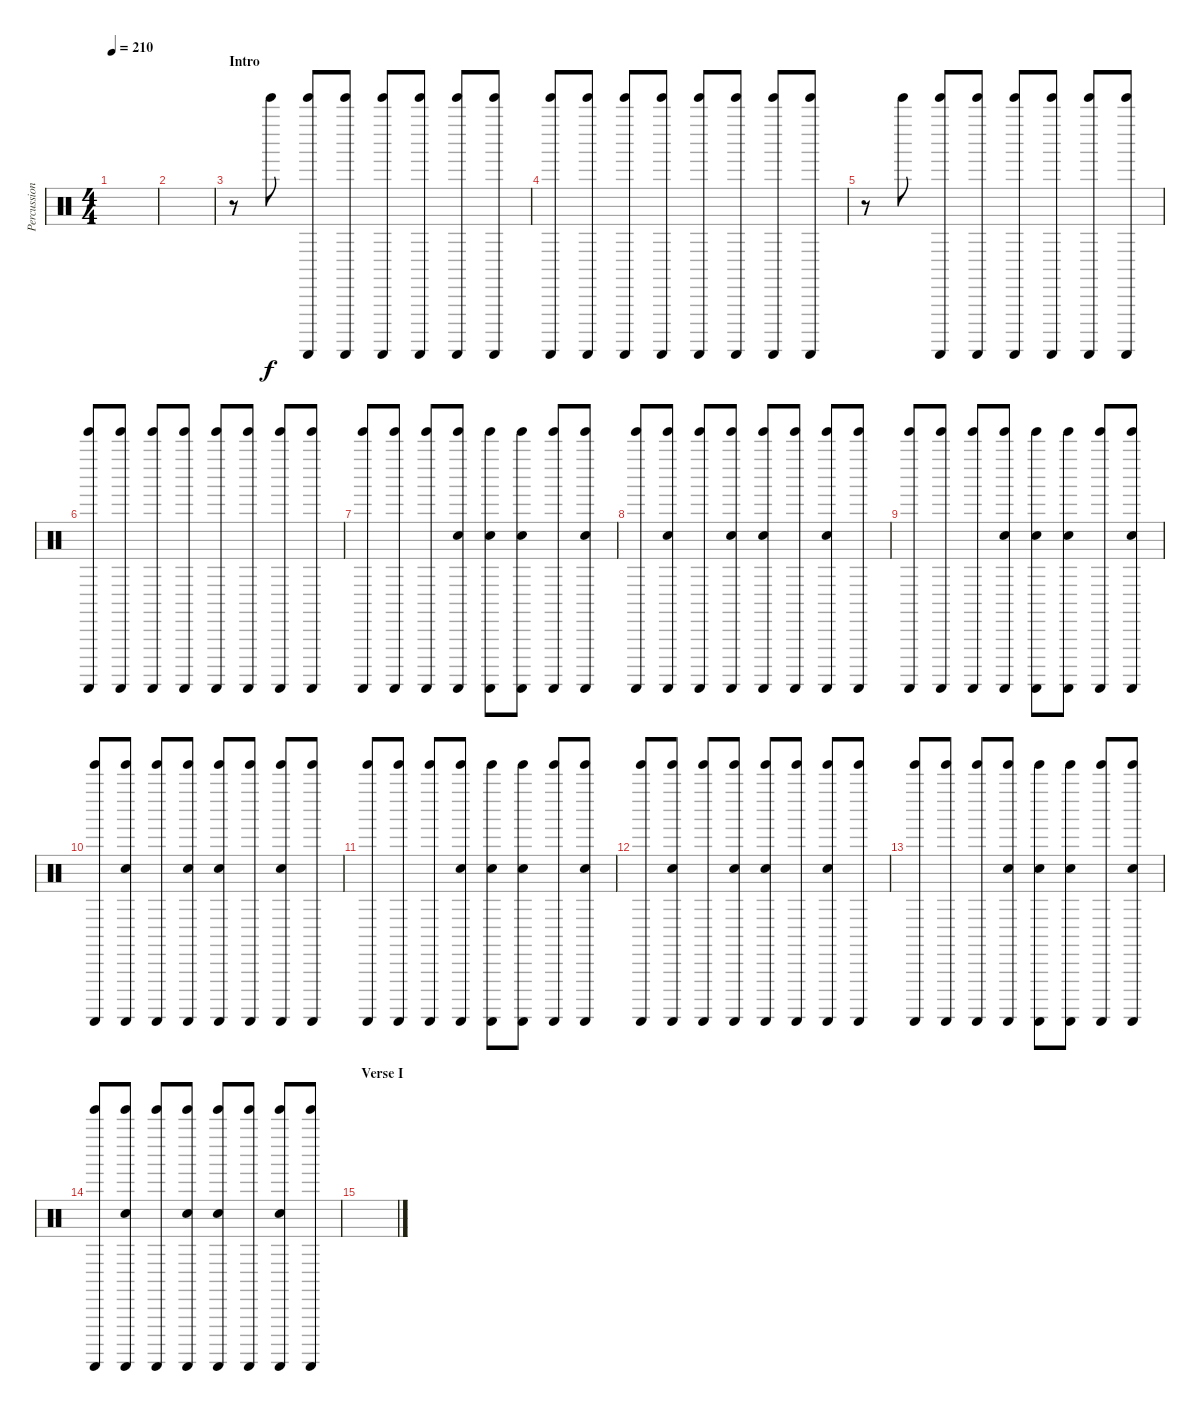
\track ("Percussion" "Percussion") {instrument percussion}
\staff {score}
\articulation defaults
\ts (4 4)
\tempo 210
\clef neutral
\ks c
|
|
\section ("" "Intro")
r.8 "Tinkle Bell (hit)".8 ("Tinkle Bell (hit)" "Guiro (scrap-return)").8 ("Tinkle Bell (hit)" "Guiro (scrap-return)").8 ("Tinkle Bell (hit)" "Guiro (scrap-return)").8 ("Tinkle Bell (hit)" "Guiro (scrap-return)").8 ("Tinkle Bell (hit)" "Guiro (scrap-return)").8 ("Tinkle Bell (hit)" "Guiro (scrap-return)").8 |
("Tinkle Bell (hit)" "Guiro (scrap-return)").8 ("Tinkle Bell (hit)" "Guiro (scrap-return)").8 ("Tinkle Bell (hit)" "Guiro (scrap-return)").8 ("Tinkle Bell (hit)" "Guiro (scrap-return)").8 ("Tinkle Bell (hit)" "Guiro (scrap-return)").8 ("Tinkle Bell (hit)" "Guiro (scrap-return)").8 ("Tinkle Bell (hit)" "Guiro (scrap-return)").8 ("Tinkle Bell (hit)" "Guiro (scrap-return)").8 |
r.8 "Tinkle Bell (hit)".8 ("Tinkle Bell (hit)" "Guiro (scrap-return)").8 ("Tinkle Bell (hit)" "Guiro (scrap-return)").8 ("Tinkle Bell (hit)" "Guiro (scrap-return)").8 ("Tinkle Bell (hit)" "Guiro (scrap-return)").8 ("Tinkle Bell (hit)" "Guiro (scrap-return)").8 ("Tinkle Bell (hit)" "Guiro (scrap-return)").8 |
("Tinkle Bell (hit)" "Guiro (scrap-return)").8 ("Tinkle Bell (hit)" "Guiro (scrap-return)").8 ("Tinkle Bell (hit)" "Guiro (scrap-return)").8 ("Tinkle Bell (hit)" "Guiro (scrap-return)").8 ("Tinkle Bell (hit)" "Guiro (scrap-return)").8 ("Tinkle Bell (hit)" "Guiro (scrap-return)").8 ("Tinkle Bell (hit)" "Guiro (scrap-return)").8 ("Tinkle Bell (hit)" "Guiro (scrap-return)").8 |
("Tinkle Bell (hit)" "Guiro (scrap-return)").8 ("Tinkle Bell (hit)" "Guiro (scrap-return)").8 ("Tinkle Bell (hit)" "Guiro (scrap-return)").8 ("Tinkle Bell (hit)" "Guiro (scrap-return)" "Hand Clap (hit)").8 ("Tinkle Bell (hit)" "Guiro (scrap-return)" "Hand Clap (hit)").8 ("Tinkle Bell (hit)" "Guiro (scrap-return)" "Hand Clap (hit)").8 ("Tinkle Bell (hit)" "Guiro (scrap-return)").8 ("Tinkle Bell (hit)" "Guiro (scrap-return)" "Hand Clap (hit)").8 |
("Tinkle Bell (hit)" "Guiro (scrap-return)").8 ("Tinkle Bell (hit)" "Guiro (scrap-return)" "Hand Clap (hit)").8 ("Tinkle Bell (hit)" "Guiro (scrap-return)").8 ("Tinkle Bell (hit)" "Guiro (scrap-return)" "Hand Clap (hit)").8 ("Tinkle Bell (hit)" "Guiro (scrap-return)" "Hand Clap (hit)").8 ("Tinkle Bell (hit)" "Guiro (scrap-return)").8 ("Tinkle Bell (hit)" "Guiro (scrap-return)" "Hand Clap (hit)").8 ("Tinkle Bell (hit)" "Guiro (scrap-return)").8 |
("Tinkle Bell (hit)" "Guiro (scrap-return)").8 ("Tinkle Bell (hit)" "Guiro (scrap-return)").8 ("Tinkle Bell (hit)" "Guiro (scrap-return)").8 ("Tinkle Bell (hit)" "Guiro (scrap-return)" "Hand Clap (hit)").8 ("Tinkle Bell (hit)" "Guiro (scrap-return)" "Hand Clap (hit)").8 ("Tinkle Bell (hit)" "Guiro (scrap-return)" "Hand Clap (hit)").8 ("Tinkle Bell (hit)" "Guiro (scrap-return)").8 ("Tinkle Bell (hit)" "Guiro (scrap-return)" "Hand Clap (hit)").8 |
("Tinkle Bell (hit)" "Guiro (scrap-return)").8 ("Tinkle Bell (hit)" "Guiro (scrap-return)" "Hand Clap (hit)").8 ("Tinkle Bell (hit)" "Guiro (scrap-return)").8 ("Tinkle Bell (hit)" "Guiro (scrap-return)" "Hand Clap (hit)").8 ("Tinkle Bell (hit)" "Guiro (scrap-return)" "Hand Clap (hit)").8 ("Tinkle Bell (hit)" "Guiro (scrap-return)").8 ("Tinkle Bell (hit)" "Guiro (scrap-return)" "Hand Clap (hit)").8 ("Tinkle Bell (hit)" "Guiro (scrap-return)").8 |
("Tinkle Bell (hit)" "Guiro (scrap-return)").8 ("Tinkle Bell (hit)" "Guiro (scrap-return)").8 ("Tinkle Bell (hit)" "Guiro (scrap-return)").8 ("Tinkle Bell (hit)" "Guiro (scrap-return)" "Hand Clap (hit)").8 ("Tinkle Bell (hit)" "Guiro (scrap-return)" "Hand Clap (hit)").8 ("Tinkle Bell (hit)" "Guiro (scrap-return)" "Hand Clap (hit)").8 ("Tinkle Bell (hit)" "Guiro (scrap-return)").8 ("Tinkle Bell (hit)" "Guiro (scrap-return)" "Hand Clap (hit)").8 |
("Tinkle Bell (hit)" "Guiro (scrap-return)").8 ("Tinkle Bell (hit)" "Guiro (scrap-return)" "Hand Clap (hit)").8 ("Tinkle Bell (hit)" "Guiro (scrap-return)").8 ("Tinkle Bell (hit)" "Guiro (scrap-return)" "Hand Clap (hit)").8 ("Tinkle Bell (hit)" "Guiro (scrap-return)" "Hand Clap (hit)").8 ("Tinkle Bell (hit)" "Guiro (scrap-return)").8 ("Tinkle Bell (hit)" "Guiro (scrap-return)" "Hand Clap (hit)").8 ("Tinkle Bell (hit)" "Guiro (scrap-return)").8 |
("Tinkle Bell (hit)" "Guiro (scrap-return)").8 ("Tinkle Bell (hit)" "Guiro (scrap-return)").8 ("Tinkle Bell (hit)" "Guiro (scrap-return)").8 ("Tinkle Bell (hit)" "Guiro (scrap-return)" "Hand Clap (hit)").8 ("Tinkle Bell (hit)" "Guiro (scrap-return)" "Hand Clap (hit)").8 ("Tinkle Bell (hit)" "Guiro (scrap-return)" "Hand Clap (hit)").8 ("Tinkle Bell (hit)" "Guiro (scrap-return)").8 ("Tinkle Bell (hit)" "Guiro (scrap-return)" "Hand Clap (hit)").8 |
("Tinkle Bell (hit)" "Guiro (scrap-return)").8 ("Tinkle Bell (hit)" "Guiro (scrap-return)" "Hand Clap (hit)").8 ("Tinkle Bell (hit)" "Guiro (scrap-return)").8 ("Tinkle Bell (hit)" "Guiro (scrap-return)" "Hand Clap (hit)").8 ("Tinkle Bell (hit)" "Guiro (scrap-return)" "Hand Clap (hit)").8 ("Tinkle Bell (hit)" "Guiro (scrap-return)").8 ("Tinkle Bell (hit)" "Guiro (scrap-return)" "Hand Clap (hit)").8 ("Tinkle Bell (hit)" "Guiro (scrap-return)").8 |
\section ("" "Verse I")
